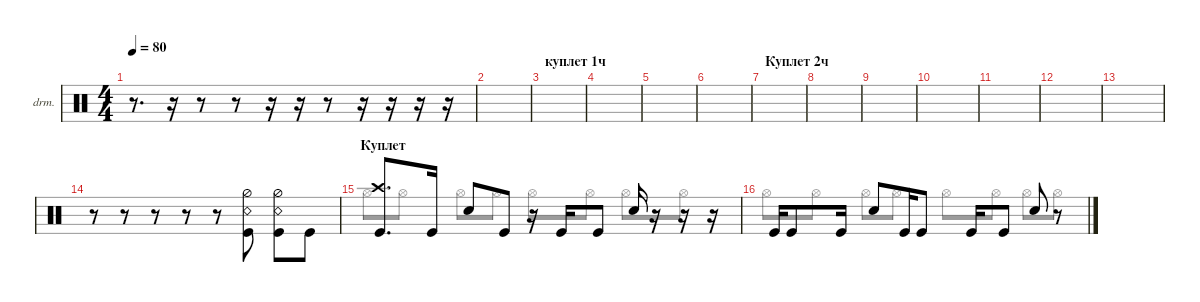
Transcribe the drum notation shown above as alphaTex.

\defaultSystemsLayout 4
\hideDynamics
\bracketExtendMode nobrackets
\firstSystemTrackNameOrientation horizontal
\otherSystemsTrackNameOrientation horizontal
\track ("Drumkit" "drm.") {instrument percussion}
\staff {score}
\articulation defaults
\voice
\ts (4 4)
\tempo 80
\clef neutral
\ks c
r.8{d dy mf} r.16 r.8 r.8 r.16 r.16 r.8 r.16 r.16 r.16 r.16 |
|
\section ("" "куплет 1ч")
|
|
|
|
\section ("" "Куплет 2ч")
|
|
|
|
|
|
|
r.8 r.8 r.8 r.8 r.8 ("Snare (rim shot)" "Kick (hit)" "Hi-Hat (half)").8 ("Snare (rim shot)" "Kick (hit)" "Hi-Hat (half)").8 "Kick (hit)".8 |
\section ("" "Куплет")
("Kick (hit)" "Crash high (hit)").8{d} "Kick (hit)".16 "Snare (hit) 2".8 "Kick (hit)".8 r.16 "Kick (hit)".16 "Kick (hit)".8 "Snare (hit) 2".16 r.16 r.16 r.16 |
"Kick (hit)".16 "Kick (hit)".8 "Kick (hit)".16 "Snare (hit) 2".8 "Kick (hit)".16 "Kick (hit)".8 "Kick (hit)".16 "Kick (hit)".8 "Snare (hit) 2".8 r.8
\voice
\clef neutral
\ottava regular
\simile none
\ks c
|
|
|
|
|
|
|
|
|
|
|
|
|
|
"Hi-Hat (open)".8 "Hi-Hat (open)".8 "Hi-Hat (open)".8 "Hi-Hat (open)".8 "Hi-Hat (open)".8 "Hi-Hat (open)".8 "Hi-Hat (open)".8 "Hi-Hat (open)".8 |
"Hi-Hat (open)".8 "Hi-Hat (open)".8 "Hi-Hat (open)".8 "Hi-Hat (open)".8 "Hi-Hat (open)".8 "Hi-Hat (open)".8 "Hi-Hat (open)".8 "Hi-Hat (open)".8
